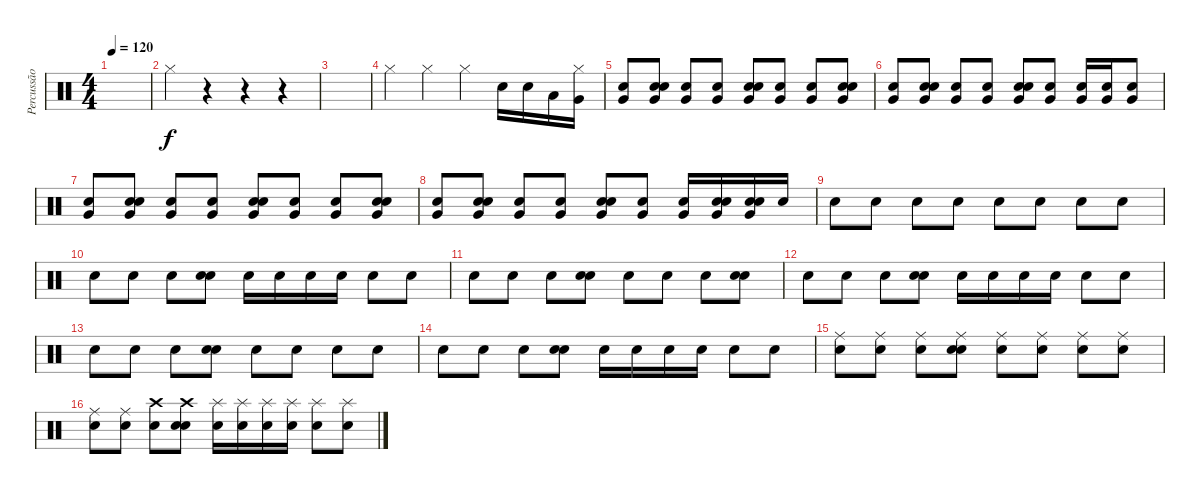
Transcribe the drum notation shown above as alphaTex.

\track ("Percussão" "Percussão") {instrument percussion}
\staff {score}
\articulation defaults
\ts (4 4)
\tempo 120
\clef neutral
\ks c
|
"Hi-Hat (closed)".4 r.4 r.4 r.4 |
|
"Hi-Hat (closed)".4 "Hi-Hat (closed)".4 "Hi-Hat (closed)".4 "Snare (hit) 2".16 "Electric Snare (hit)".16 "Low Floor Tom (hit)".16 ("Hi-Hat (closed)" "Very Low Tom (hit)").16 |
("Snare (hit) 2" "Very Low Tom (hit)").8 ("Snare (hit) 2" "Electric Snare (hit)" "Very Low Tom (hit)").8 ("Snare (hit) 2" "Very Low Tom (hit)").8 ("Snare (hit) 2" "Very Low Tom (hit)").8 ("Snare (hit) 2" "Electric Snare (hit)" "Very Low Tom (hit)").8 ("Snare (hit) 2" "Very Low Tom (hit)").8 ("Snare (hit) 2" "Very Low Tom (hit)").8 ("Snare (hit) 2" "Electric Snare (hit)" "Very Low Tom (hit)").8 |
("Very Low Tom (hit)" "Snare (hit) 2").8 ("Very Low Tom (hit)" "Snare (hit) 2" "Electric Snare (hit)").8 ("Very Low Tom (hit)" "Snare (hit) 2").8 ("Very Low Tom (hit)" "Snare (hit) 2").8 ("Very Low Tom (hit)" "Snare (hit) 2" "Electric Snare (hit)").8 ("Very Low Tom (hit)" "Snare (hit) 2").8 ("Very Low Tom (hit)" "Snare (hit) 2").16 ("Very Low Tom (hit)" "Snare (hit) 2").16 ("Very Low Tom (hit)" "Electric Snare (hit)").8 |
("Very Low Tom (hit)" "Snare (hit) 2").8 ("Very Low Tom (hit)" "Snare (hit) 2" "Electric Snare (hit)").8 ("Very Low Tom (hit)" "Snare (hit) 2").8 ("Very Low Tom (hit)" "Snare (hit) 2").8 ("Very Low Tom (hit)" "Snare (hit) 2" "Electric Snare (hit)").8 ("Very Low Tom (hit)" "Snare (hit) 2").8 ("Very Low Tom (hit)" "Snare (hit) 2").8 ("Very Low Tom (hit)" "Snare (hit) 2" "Electric Snare (hit)").8 |
("Very Low Tom (hit)" "Snare (hit) 2").8 ("Very Low Tom (hit)" "Snare (hit) 2" "Electric Snare (hit)").8 ("Very Low Tom (hit)" "Snare (hit) 2").8 ("Very Low Tom (hit)" "Snare (hit) 2").8 ("Very Low Tom (hit)" "Snare (hit) 2" "Electric Snare (hit)").8 ("Very Low Tom (hit)" "Snare (hit) 2").8 ("Very Low Tom (hit)" "Snare (hit) 2").16 ("Very Low Tom (hit)" "Snare (hit) 2" "Electric Snare (hit)").16 ("Very Low Tom (hit)" "Snare (hit) 2" "Electric Snare (hit)").16 "Electric Snare (hit)".16 |
"Snare (hit) 2".8 "Snare (hit) 2".8 "Electric Snare (hit)".8 "Electric Snare (hit)".8 "Snare (hit) 2".8 "Snare (hit) 2".8 "Electric Snare (hit)".8 "Electric Snare (hit)".8 |
"Snare (hit) 2".8 "Snare (hit) 2".8 "Electric Snare (hit)".8 ("Snare (hit) 2" "Electric Snare (hit)").8 "Snare (hit) 2".16 "Snare (hit) 2".16 "Snare (hit) 2".16 "Snare (hit) 2".16 "Electric Snare (hit)".8 "Electric Snare (hit)".8 |
"Snare (hit) 2".8 "Snare (hit) 2".8 "Electric Snare (hit)".8 ("Snare (hit) 2" "Electric Snare (hit)").8 "Snare (hit) 2".8 "Snare (hit) 2".8 "Electric Snare (hit)".8 ("Snare (hit) 2" "Electric Snare (hit)").8 |
"Snare (hit) 2".8 "Snare (hit) 2".8 "Electric Snare (hit)".8 ("Snare (hit) 2" "Electric Snare (hit)").8 "Snare (hit) 2".16 "Snare (hit) 2".16 "Snare (hit) 2".16 "Snare (hit) 2".16 "Electric Snare (hit)".8 "Electric Snare (hit)".8 |
"Snare (hit) 2".8 "Snare (hit) 2".8 "Electric Snare (hit)".8 ("Snare (hit) 2" "Electric Snare (hit)").8 "Snare (hit) 2".8 "Snare (hit) 2".8 "Electric Snare (hit)".8 "Electric Snare (hit)".8 |
"Snare (hit) 2".8 "Snare (hit) 2".8 "Electric Snare (hit)".8 ("Snare (hit) 2" "Electric Snare (hit)").8 "Snare (hit) 2".16 "Snare (hit) 2".16 "Snare (hit) 2".16 "Snare (hit) 2".16 "Electric Snare (hit)".8 "Electric Snare (hit)".8 |
("Ride (middle)" "Snare (hit) 2").8 ("Ride (middle)" "Snare (hit) 2").8 ("Ride (middle)" "Electric Snare (hit)").8 ("Ride (middle)" "Snare (hit) 2" "Electric Snare (hit)").8 ("Ride (middle)" "Snare (hit) 2").8 ("Ride (middle)" "Snare (hit) 2").8 ("Ride (middle)" "Electric Snare (hit)").8 ("Ride (middle)" "Electric Snare (hit)").8 |
("Ride (middle)" "Snare (hit) 2").8 ("Ride (middle)" "Snare (hit) 2").8 ("Crash high (hit)" "Electric Snare (hit)").8 ("Crash high (hit)" "Snare (hit) 2" "Electric Snare (hit)").8 ("Splash (hit)" "Snare (hit) 2").16 ("Splash (hit)" "Snare (hit) 2").16 ("Splash (hit)" "Snare (hit) 2").16 ("Splash (hit)" "Snare (hit) 2").16 ("Splash (hit)" "Electric Snare (hit)").8 ("Splash (hit)" "Electric Snare (hit)").8
